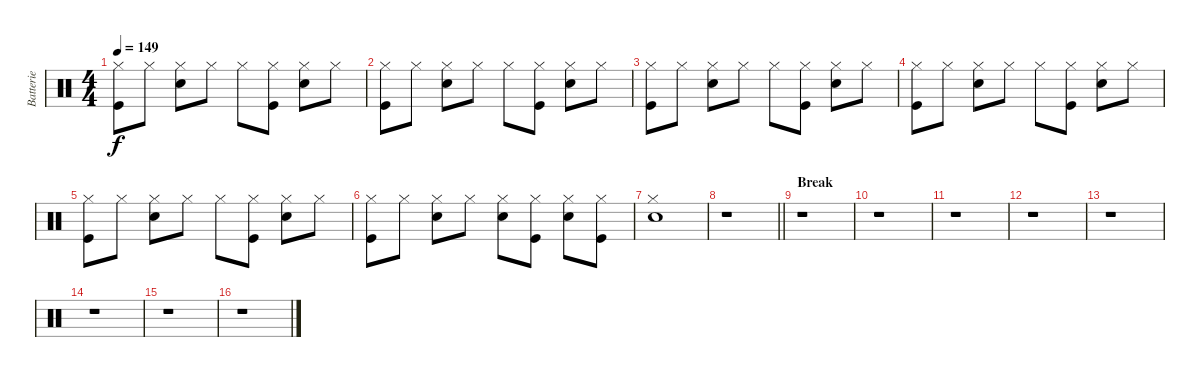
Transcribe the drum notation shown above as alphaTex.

\track ("Batterie" "Batterie") {instrument percussion}
\staff {score}
\articulation defaults
\ts (4 4)
\tempo 149
\clef neutral
\ks c
("Hi-Hat (closed)" "Kick (hit)").8{dy f} "Hi-Hat (closed)".8 ("Hi-Hat (closed)" "Snare (hit) 2").8 "Hi-Hat (closed)".8 "Hi-Hat (closed)".8 ("Hi-Hat (closed)" "Kick (hit)").8 ("Hi-Hat (closed)" "Snare (hit) 2").8 "Hi-Hat (closed)".8 |
("Hi-Hat (closed)" "Kick (hit)").8 "Hi-Hat (closed)".8 ("Hi-Hat (closed)" "Snare (hit) 2").8 "Hi-Hat (closed)".8 "Hi-Hat (closed)".8 ("Hi-Hat (closed)" "Kick (hit)").8 ("Hi-Hat (closed)" "Snare (hit) 2").8 "Hi-Hat (closed)".8 |
("Hi-Hat (closed)" "Kick (hit)").8 "Hi-Hat (closed)".8 ("Hi-Hat (closed)" "Snare (hit) 2").8 "Hi-Hat (closed)".8 "Hi-Hat (closed)".8 ("Hi-Hat (closed)" "Kick (hit)").8 ("Hi-Hat (closed)" "Snare (hit) 2").8 "Hi-Hat (closed)".8 |
("Hi-Hat (closed)" "Kick (hit)").8 "Hi-Hat (closed)".8 ("Hi-Hat (closed)" "Snare (hit) 2").8 "Hi-Hat (closed)".8 "Hi-Hat (closed)".8 ("Hi-Hat (closed)" "Kick (hit)").8 ("Hi-Hat (closed)" "Snare (hit) 2").8 "Hi-Hat (closed)".8 |
("Hi-Hat (closed)" "Kick (hit)").8 "Hi-Hat (closed)".8 ("Hi-Hat (closed)" "Snare (hit) 2").8 "Hi-Hat (closed)".8 "Hi-Hat (closed)".8 ("Hi-Hat (closed)" "Kick (hit)").8 ("Hi-Hat (closed)" "Snare (hit) 2").8 "Hi-Hat (closed)".8 |
("Hi-Hat (closed)" "Kick (hit)").8 "Hi-Hat (closed)".8 ("Hi-Hat (closed)" "Snare (hit) 2").8 "Hi-Hat (closed)".8 ("Hi-Hat (closed)" "Snare (hit) 2").8 ("Hi-Hat (closed)" "Kick (hit)").8 ("Hi-Hat (closed)" "Snare (hit) 2").8 ("Hi-Hat (closed)" "Kick (hit)").8 |
("Hi-Hat (closed)" "Snare (hit) 2").1 |
\barLineRight lightlight
r.1 |
\section ("" "Break")
r.1 |
r.1 |
r.1 |
r.1 |
r.1 |
r.1 |
r.1 |
r.1
